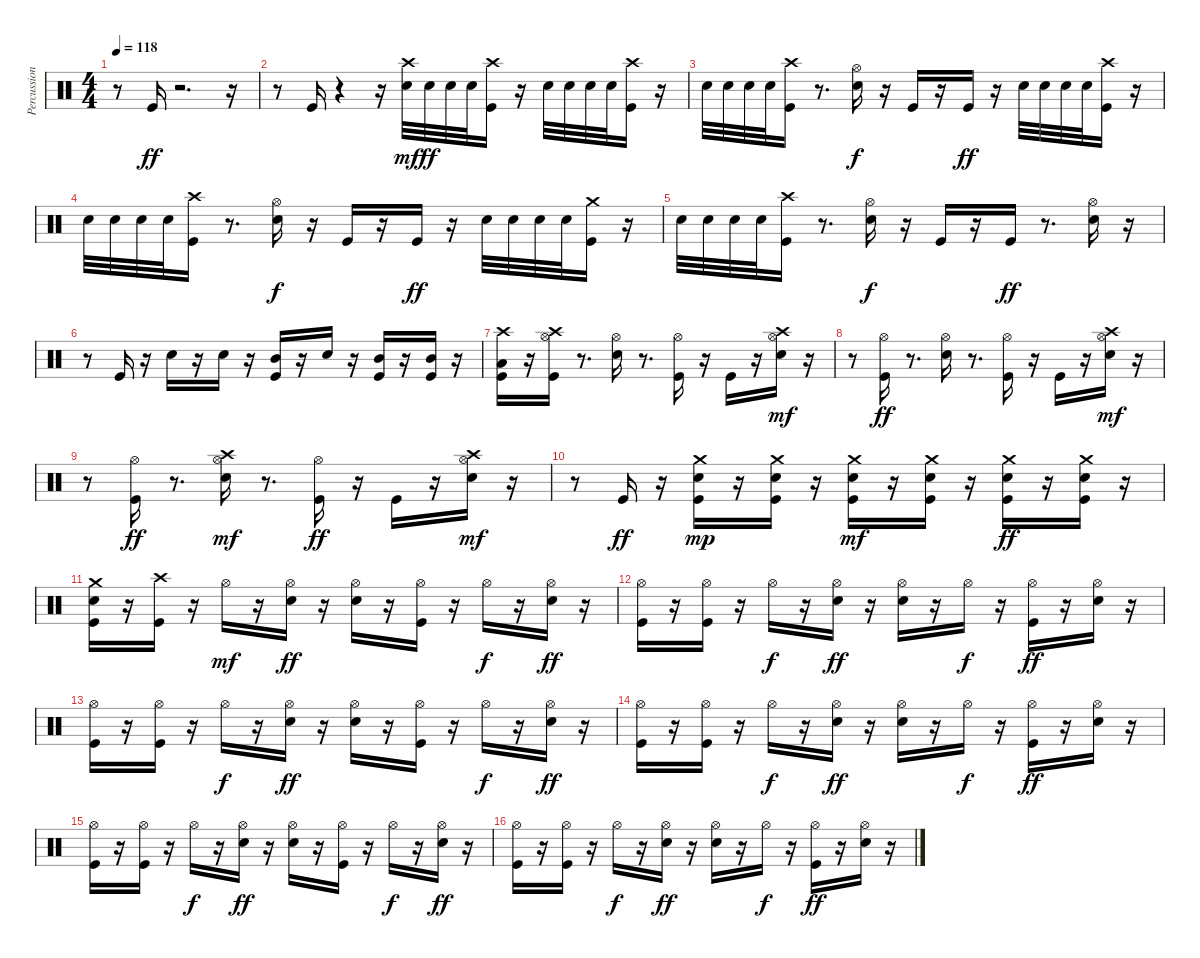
\track ("Percussion" "Percussion") {instrument percussion}
\staff {score}
\articulation defaults
\ts (4 4)
\tempo 118
\clef neutral
\ks c
r.8{dy ff} "Kick (hit)".16 r.2{d} r.16 |
r.8 "Kick (hit)".16 r.4 r.16 ("Electric Snare (hit)" "Crash high (hit)").32{dy mf} "Electric Snare (hit)".32{dy ff} "Electric Snare (hit)".32 "Electric Snare (hit)".32 ("Kick (hit)" "Crash high (hit)").16 r.16 "Electric Snare (hit)".32 "Electric Snare (hit)".32 "Electric Snare (hit)".32 "Electric Snare (hit)".32 ("Kick (hit)" "Crash high (hit)").16 r.16 |
"Electric Snare (hit)".32 "Electric Snare (hit)".32 "Electric Snare (hit)".32 "Electric Snare (hit)".32 ("Kick (hit)" "Crash high (hit)").16 r.8{d} ("Electric Snare (hit)" "Hi-Hat (open)").16{dy f} r.16 "Kick (hit)".16 r.16 "Kick (hit)".16{dy ff} r.16 "Electric Snare (hit)".32 "Electric Snare (hit)".32 "Electric Snare (hit)".32 "Electric Snare (hit)".32 ("Kick (hit)" "Crash high (hit)").16 r.16 |
"Electric Snare (hit)".32 "Electric Snare (hit)".32 "Electric Snare (hit)".32 "Electric Snare (hit)".32 ("Kick (hit)" "Crash high (hit)").16 r.8{d} ("Electric Snare (hit)" "Hi-Hat (open)").16{dy f} r.16 "Kick (hit)".16 r.16 "Kick (hit)".16{dy ff} r.16 "Electric Snare (hit)".32 "Electric Snare (hit)".32 "Electric Snare (hit)".32 "Electric Snare (hit)".32 ("Kick (hit)" "Crash medium (hit)").16 r.16 |
"Electric Snare (hit)".32 "Electric Snare (hit)".32 "Electric Snare (hit)".32 "Electric Snare (hit)".32 ("Kick (hit)" "Crash high (hit)").16 r.8{d} ("Electric Snare (hit)" "Hi-Hat (open)").16{dy f} r.16 "Kick (hit)".16 r.16 "Kick (hit)".16{dy ff} r.8{d} ("Hi-Hat (open)" "Electric Snare (hit)").16 r.16 |
r.8 "Kick (hit)".16 r.16 "Electric Snare (hit)".16 r.16 "Electric Snare (hit)".16 r.16 ("Kick (hit)" "Mid Tom (hit)").16 r.16 "Electric Snare (hit)".16 r.16 ("Kick (hit)" "Mid Tom (hit)").16 r.16 ("Kick (hit)" "Mid Tom (hit)").16 r.16 |
("Kick (hit)" "Low Floor Tom (hit)" "Crash high (hit)").16 r.16 ("Kick (hit)" "Crash high (hit)" "Hi-Hat (open)").16 r.8{d} ("Electric Snare (hit)" "Hi-Hat (open)").16 r.8{d} ("Kick (hit)" "Hi-Hat (open)").16 r.16 "Kick (hit)".16 r.16 ("Electric Snare (hit)" "Crash high (hit)" "Hi-Hat (open)").16{dy mf} r.16 |
r.8 ("Kick (hit)" "Hi-Hat (open)").16{dy ff} r.8{d} ("Electric Snare (hit)" "Hi-Hat (open)").16 r.8{d} ("Kick (hit)" "Hi-Hat (open)").16 r.16 "Kick (hit)".16 r.16 ("Electric Snare (hit)" "Crash high (hit)" "Hi-Hat (open)").16{dy mf} r.16 |
r.8 ("Kick (hit)" "Hi-Hat (open)").16{dy ff} r.8{d} ("Electric Snare (hit)" "Crash high (hit)" "Hi-Hat (open)").16{dy mf} r.8{d} ("Kick (hit)" "Hi-Hat (open)").16{dy ff} r.16 "Kick (hit)".16 r.16 ("Electric Snare (hit)" "Crash high (hit)" "Hi-Hat (open)").16{dy mf} r.16 |
r.8 "Kick (hit)".16{dy ff} r.16 ("Electric Snare (hit)" "Kick (hit)" "Crash medium (hit)").16{dy mp} r.16 ("Electric Snare (hit)" "Kick (hit)" "Crash medium (hit)").16 r.16 ("Electric Snare (hit)" "Kick (hit)" "Crash medium (hit)").16{dy mf} r.16 ("Electric Snare (hit)" "Kick (hit)" "Crash medium (hit)").16 r.16 ("Electric Snare (hit)" "Kick (hit)" "Crash medium (hit)").16{dy ff} r.16 ("Electric Snare (hit)" "Kick (hit)" "Crash medium (hit)").16 r.16 |
("Electric Snare (hit)" "Kick (hit)" "Crash medium (hit)").16 r.16 ("Kick (hit)" "Crash high (hit)").16 r.16 "Hi-Hat (open)".16{dy mf} r.16 ("Hi-Hat (open)" "Snare (hit) 2").16{dy ff} r.16 ("Hi-Hat (open)" "Snare (hit) 2").16 r.16 ("Hi-Hat (open)" "Kick (hit)").16 r.16 "Hi-Hat (open)".16{dy f} r.16 ("Hi-Hat (open)" "Snare (hit) 2").16{dy ff} r.16 |
("Hi-Hat (open)" "Kick (hit)").16 r.16 ("Kick (hit)" "Hi-Hat (open)").16 r.16 "Hi-Hat (open)".16{dy f} r.16 ("Hi-Hat (open)" "Snare (hit) 2").16{dy ff} r.16 ("Hi-Hat (open)" "Snare (hit) 2").16 r.16 "Hi-Hat (open)".16{dy f} r.16 ("Hi-Hat (open)" "Kick (hit)").16{dy ff} r.16 ("Hi-Hat (open)" "Snare (hit) 2").16 r.16 |
("Hi-Hat (open)" "Kick (hit)").16 r.16 ("Kick (hit)" "Hi-Hat (open)").16 r.16 "Hi-Hat (open)".16{dy f} r.16 ("Hi-Hat (open)" "Snare (hit) 2").16{dy ff} r.16 ("Hi-Hat (open)" "Snare (hit) 2").16 r.16 ("Hi-Hat (open)" "Kick (hit)").16 r.16 "Hi-Hat (open)".16{dy f} r.16 ("Hi-Hat (open)" "Snare (hit) 2").16{dy ff} r.16 |
("Hi-Hat (open)" "Kick (hit)").16 r.16 ("Kick (hit)" "Hi-Hat (open)").16 r.16 "Hi-Hat (open)".16{dy f} r.16 ("Hi-Hat (open)" "Snare (hit) 2").16{dy ff} r.16 ("Hi-Hat (open)" "Snare (hit) 2").16 r.16 "Hi-Hat (open)".16{dy f} r.16 ("Hi-Hat (open)" "Kick (hit)").16{dy ff} r.16 ("Hi-Hat (open)" "Snare (hit) 2").16 r.16 |
("Hi-Hat (open)" "Kick (hit)").16 r.16 ("Kick (hit)" "Hi-Hat (open)").16 r.16 "Hi-Hat (open)".16{dy f} r.16 ("Hi-Hat (open)" "Snare (hit) 2").16{dy ff} r.16 ("Hi-Hat (open)" "Snare (hit) 2").16 r.16 ("Hi-Hat (open)" "Kick (hit)").16 r.16 "Hi-Hat (open)".16{dy f} r.16 ("Hi-Hat (open)" "Snare (hit) 2").16{dy ff} r.16 |
("Hi-Hat (open)" "Kick (hit)").16 r.16 ("Kick (hit)" "Hi-Hat (open)").16 r.16 "Hi-Hat (open)".16{dy f} r.16 ("Hi-Hat (open)" "Snare (hit) 2").16{dy ff} r.16 ("Hi-Hat (open)" "Snare (hit) 2").16 r.16 "Hi-Hat (open)".16{dy f} r.16 ("Hi-Hat (open)" "Kick (hit)").16{dy ff} r.16 ("Hi-Hat (open)" "Snare (hit) 2").16 r.16
